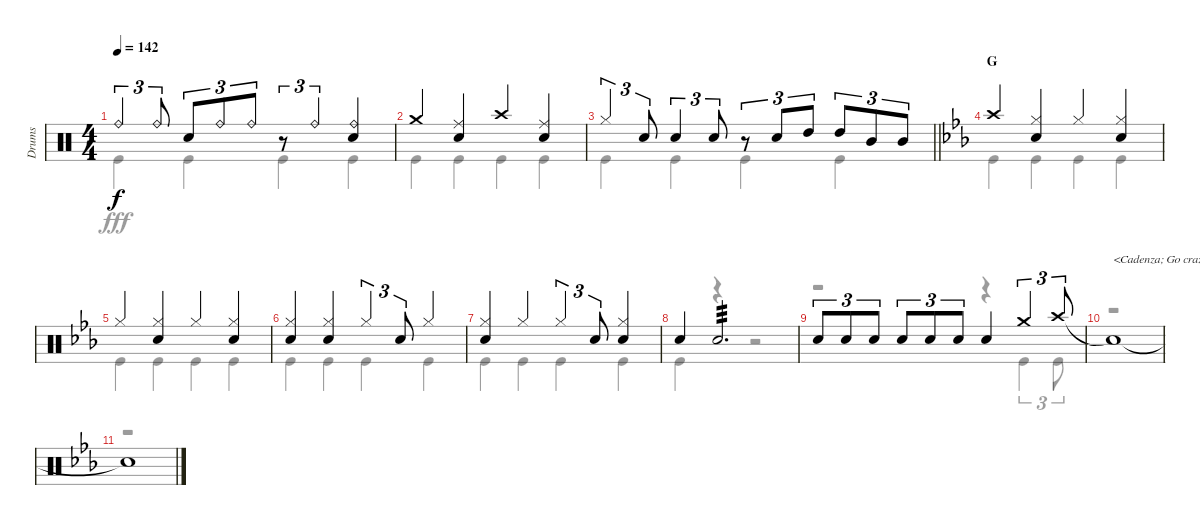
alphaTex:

\track ("Drums" "Drums") {instrument percussion}
\staff {score}
\articulation defaults
\voice
\ts (4 4)
\tempo 142
\clef neutral
\ks c "Ride (bell)".4{tu (3 2) dy f} "Ride (bell)".8{tu (3 2)} "Snare (hit) 2".8{tu (3 2)} "Ride (bell)".8{tu (3 2)} "Ride (bell)".8{tu (3 2)}
r.8{tu (3 2)} "Ride (bell)".4{tu (3 2)} ("Ride (bell)" "Snare (hit) 2").4 |
"Crash medium (hit)".4 ("Ride (middle)" "Snare (hit) 2").4 "Crash high (hit)".4 ("Ride (middle)" "Snare (hit) 2").4 |
\barLineRight lightlight "Hi-Hat (closed)".4{tu (3 2)} "Snare (hit) 2".8{tu (3 2)} "Snare (hit) 2".4{tu (3 2)} "Snare (hit) 2".8{tu (3 2)}
r.8{tu (3 2)} "Snare (hit) 2".8{tu (3 2)} "High Tom (hit)".8{tu (3 2)} "High Tom (hit)".8{tu (3 2)} "Mid Tom (hit)".8{tu (3 2)} "Mid Tom (hit)".8{tu (3 2)} |
\section ("" "G")
\ks eb "Crash high (hit)".4
("Hi-Hat (closed)" "Snare (hit) 2").4 "Hi-Hat (closed)".4 ("Hi-Hat (closed)" "Snare (hit) 2").4 |
"Hi-Hat (closed)".4 ("Hi-Hat (closed)" "Snare (hit) 2").4 "Hi-Hat (closed)".4 ("Hi-Hat (closed)" "Snare (hit) 2").4 |
("Hi-Hat (closed)" "Snare (hit) 2").4 ("Hi-Hat (closed)" "Snare (hit) 2").4 "Hi-Hat (closed)".4{tu (3 2)} "Snare (hit) 2".8{tu (3 2)} "Hi-Hat (closed)".4 |
("Hi-Hat (closed)" "Snare (hit) 2").4 "Hi-Hat (closed)".4 "Hi-Hat (closed)".4{tu (3 2)} "Snare (hit) 2".8{tu (3 2)} ("Hi-Hat (closed)" "Snare (hit) 2").4 |
"Snare (hit) 2".4 "Snare (hit) 2".2{d tp 3} |
"Snare (hit) 2".8{tu (3 2)} "Snare (hit) 2".8{tu (3 2)} "Snare (hit) 2".8{tu (3 2)} "Snare (hit) 2".8{tu (3 2)} "Snare (hit) 2".8{tu (3 2)} "Snare (hit) 2".8{tu (3 2)} "Snare (hit) 2".4 "Crash medium (hit)".4{tu (3 2)} "Crash high (hit)".8{tu (3 2)} |
"Snare (hit)"{t}.1{txt "<Cadenza; Go crazy ^__^>"} |
"Snare (hit)"{t}.1
\voice
\clef neutral
\ottava regular
\simile none
\ks c "Kick (hit)".4{dy fff} "Kick (hit)".4 "Kick (hit)".4 "Kick (hit)".4
|
"Kick (hit)".4 "Kick (hit)".4 "Kick (hit)".4 "Kick (hit)".4 |
\barLineRight lightlight "Kick (hit)".4 "Kick (hit)".4 "Kick (hit)".4 "Kick (hit)".4
|
\ks eb "Kick (hit)".4 "Kick (hit)".4 "Kick (hit)".4 "Kick (hit)".4
|
"Kick (hit)".4 "Kick (hit)".4 "Kick (hit)".4 "Kick (hit)".4 |
"Kick (hit)".4 "Kick (hit)".4 "Kick (hit)".4 "Kick (hit)".4 |
"Kick (hit)".4 "Kick (hit)".4 "Kick (hit)".4 "Kick (hit)".4 |
"Kick (hit)".4 r.4 r.2 |
r.2 r.4 "Kick (hit)".4{tu (3 2)} "Kick (hit)".8{tu (3 2)} |
r.1 |
r.1
